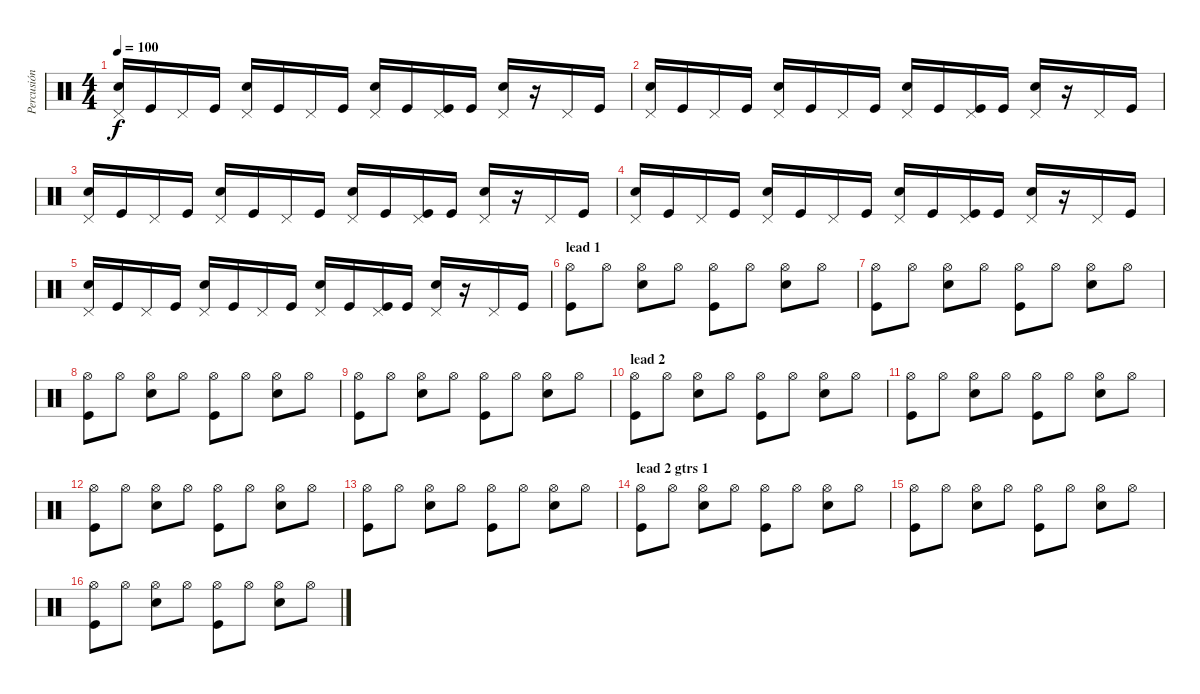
\track ("Percusión" "Percusión") {instrument percussion}
\staff {score}
\articulation defaults
\ts (4 4)
\tempo 100
\clef neutral
\ks c
("Pedal Hi-Hat (hit)" "Electric Snare (hit)").16{dy f} "Kick (hit)".16 "Pedal Hi-Hat (hit)".16 "Kick (hit)".16 ("Pedal Hi-Hat (hit)" "Electric Snare (hit)").16 "Kick (hit)".16 "Pedal Hi-Hat (hit)".16 "Kick (hit)".16 ("Pedal Hi-Hat (hit)" "Electric Snare (hit)").16 "Kick (hit)".16 ("Pedal Hi-Hat (hit)" "Kick (hit)").16 "Kick (hit)".16 ("Pedal Hi-Hat (hit)" "Electric Snare (hit)").16 r.16 "Pedal Hi-Hat (hit)".16 "Kick (hit)".16 |
("Pedal Hi-Hat (hit)" "Electric Snare (hit)").16 "Kick (hit)".16 "Pedal Hi-Hat (hit)".16 "Kick (hit)".16 ("Pedal Hi-Hat (hit)" "Electric Snare (hit)").16 "Kick (hit)".16 "Pedal Hi-Hat (hit)".16 "Kick (hit)".16 ("Pedal Hi-Hat (hit)" "Electric Snare (hit)").16 "Kick (hit)".16 ("Pedal Hi-Hat (hit)" "Kick (hit)").16 "Kick (hit)".16 ("Pedal Hi-Hat (hit)" "Electric Snare (hit)").16 r.16 "Pedal Hi-Hat (hit)".16 "Kick (hit)".16 |
("Pedal Hi-Hat (hit)" "Electric Snare (hit)").16 "Kick (hit)".16 "Pedal Hi-Hat (hit)".16 "Kick (hit)".16 ("Pedal Hi-Hat (hit)" "Electric Snare (hit)").16 "Kick (hit)".16 "Pedal Hi-Hat (hit)".16 "Kick (hit)".16 ("Pedal Hi-Hat (hit)" "Electric Snare (hit)").16 "Kick (hit)".16 ("Pedal Hi-Hat (hit)" "Kick (hit)").16 "Kick (hit)".16 ("Pedal Hi-Hat (hit)" "Electric Snare (hit)").16 r.16 "Pedal Hi-Hat (hit)".16 "Kick (hit)".16 |
("Pedal Hi-Hat (hit)" "Electric Snare (hit)").16 "Kick (hit)".16 "Pedal Hi-Hat (hit)".16 "Kick (hit)".16 ("Pedal Hi-Hat (hit)" "Electric Snare (hit)").16 "Kick (hit)".16 "Pedal Hi-Hat (hit)".16 "Kick (hit)".16 ("Pedal Hi-Hat (hit)" "Electric Snare (hit)").16 "Kick (hit)".16 ("Pedal Hi-Hat (hit)" "Kick (hit)").16 "Kick (hit)".16 ("Pedal Hi-Hat (hit)" "Electric Snare (hit)").16 r.16 "Pedal Hi-Hat (hit)".16 "Kick (hit)".16 |
("Pedal Hi-Hat (hit)" "Electric Snare (hit)").16 "Kick (hit)".16 "Pedal Hi-Hat (hit)".16 "Kick (hit)".16 ("Pedal Hi-Hat (hit)" "Electric Snare (hit)").16 "Kick (hit)".16 "Pedal Hi-Hat (hit)".16 "Kick (hit)".16 ("Pedal Hi-Hat (hit)" "Electric Snare (hit)").16 "Kick (hit)".16 ("Pedal Hi-Hat (hit)" "Kick (hit)").16 "Kick (hit)".16 ("Pedal Hi-Hat (hit)" "Electric Snare (hit)").16 r.16 "Pedal Hi-Hat (hit)".16 "Kick (hit)".16 |
\section ("" "lead 1")
("Hi-Hat (open)" "Kick (hit)").8 "Hi-Hat (open)".8 ("Hi-Hat (open)" "Electric Snare (hit)").8 "Hi-Hat (open)".8 ("Hi-Hat (open)" "Kick (hit)").8 "Hi-Hat (open)".8 ("Hi-Hat (open)" "Electric Snare (hit)").8 "Hi-Hat (open)".8 |
("Hi-Hat (open)" "Kick (hit)").8 "Hi-Hat (open)".8 ("Hi-Hat (open)" "Electric Snare (hit)").8 "Hi-Hat (open)".8 ("Hi-Hat (open)" "Kick (hit)").8 "Hi-Hat (open)".8 ("Hi-Hat (open)" "Electric Snare (hit)").8 "Hi-Hat (open)".8 |
("Hi-Hat (open)" "Kick (hit)").8 "Hi-Hat (open)".8 ("Hi-Hat (open)" "Electric Snare (hit)").8 "Hi-Hat (open)".8 ("Hi-Hat (open)" "Kick (hit)").8 "Hi-Hat (open)".8 ("Hi-Hat (open)" "Electric Snare (hit)").8 "Hi-Hat (open)".8 |
("Hi-Hat (open)" "Kick (hit)").8 "Hi-Hat (open)".8 ("Hi-Hat (open)" "Electric Snare (hit)").8 "Hi-Hat (open)".8 ("Hi-Hat (open)" "Kick (hit)").8 "Hi-Hat (open)".8 ("Hi-Hat (open)" "Electric Snare (hit)").8 "Hi-Hat (open)".8 |
\section ("" "lead 2")
("Hi-Hat (open)" "Kick (hit)").8 "Hi-Hat (open)".8 ("Hi-Hat (open)" "Electric Snare (hit)").8 "Hi-Hat (open)".8 ("Hi-Hat (open)" "Kick (hit)").8 "Hi-Hat (open)".8 ("Hi-Hat (open)" "Electric Snare (hit)").8 "Hi-Hat (open)".8 |
("Hi-Hat (open)" "Kick (hit)").8 "Hi-Hat (open)".8 ("Hi-Hat (open)" "Electric Snare (hit)").8 "Hi-Hat (open)".8 ("Hi-Hat (open)" "Kick (hit)").8 "Hi-Hat (open)".8 ("Hi-Hat (open)" "Electric Snare (hit)").8 "Hi-Hat (open)".8 |
("Hi-Hat (open)" "Kick (hit)").8 "Hi-Hat (open)".8 ("Hi-Hat (open)" "Electric Snare (hit)").8 "Hi-Hat (open)".8 ("Hi-Hat (open)" "Kick (hit)").8 "Hi-Hat (open)".8 ("Hi-Hat (open)" "Electric Snare (hit)").8 "Hi-Hat (open)".8 |
("Hi-Hat (open)" "Kick (hit)").8 "Hi-Hat (open)".8 ("Hi-Hat (open)" "Electric Snare (hit)").8 "Hi-Hat (open)".8 ("Hi-Hat (open)" "Kick (hit)").8 "Hi-Hat (open)".8 ("Hi-Hat (open)" "Electric Snare (hit)").8 "Hi-Hat (open)".8 |
\section ("" "lead 2 gtrs 1")
("Hi-Hat (open)" "Kick (hit)").8 "Hi-Hat (open)".8 ("Hi-Hat (open)" "Electric Snare (hit)").8 "Hi-Hat (open)".8 ("Hi-Hat (open)" "Kick (hit)").8 "Hi-Hat (open)".8 ("Hi-Hat (open)" "Electric Snare (hit)").8 "Hi-Hat (open)".8 |
("Hi-Hat (open)" "Kick (hit)").8 "Hi-Hat (open)".8 ("Hi-Hat (open)" "Electric Snare (hit)").8 "Hi-Hat (open)".8 ("Hi-Hat (open)" "Kick (hit)").8 "Hi-Hat (open)".8 ("Hi-Hat (open)" "Electric Snare (hit)").8 "Hi-Hat (open)".8 |
("Hi-Hat (open)" "Kick (hit)").8 "Hi-Hat (open)".8 ("Hi-Hat (open)" "Electric Snare (hit)").8 "Hi-Hat (open)".8 ("Hi-Hat (open)" "Kick (hit)").8 "Hi-Hat (open)".8 ("Hi-Hat (open)" "Electric Snare (hit)").8 "Hi-Hat (open)".8
